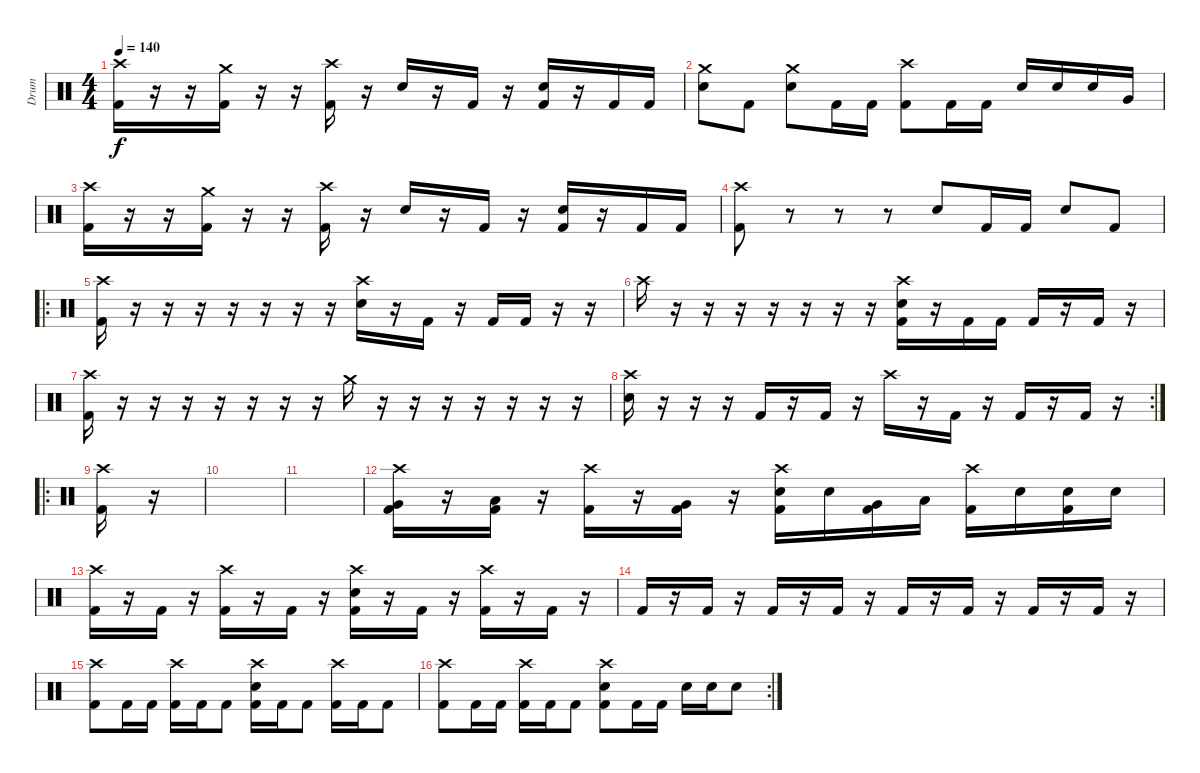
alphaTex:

\track ("Drum" "Drum") {instrument percussion}
\staff {score}
\articulation defaults
\ts (4 4)
\tempo 140
\clef neutral
\ks c
("Crash high (hit)" "Kick (hit) 2").16{dy f} r.16 r.16 ("Crash medium (hit)" "Kick (hit) 2").16 r.16 r.16 ("Crash high (hit)" "Kick (hit) 2").16 r.16 "Electric Snare (hit)".16 r.16 "Kick (hit) 2".16 r.16 ("Electric Snare (hit)" "Kick (hit) 2").16 r.16 "Kick (hit) 2".16 "Kick (hit) 2".16 |
("Crash medium (hit)" "Electric Snare (hit)").8 "Kick (hit) 2".8 ("Crash medium (hit)" "Electric Snare (hit)").8 "Kick (hit) 2".16 "Kick (hit) 2".16 ("Crash high (hit)" "Kick (hit) 2").8 "Kick (hit) 2".16 "Kick (hit) 2".16 "Electric Snare (hit)".16 "Electric Snare (hit)".16 "Electric Snare (hit)".16 "Very Low Tom (hit)".16 |
("Crash high (hit)" "Kick (hit) 2").16 r.16 r.16 ("Crash medium (hit)" "Kick (hit) 2").16 r.16 r.16 ("Crash high (hit)" "Kick (hit) 2").16 r.16 "Electric Snare (hit)".16 r.16 "Kick (hit) 2".16 r.16 ("Electric Snare (hit)" "Kick (hit) 2").16 r.16 "Kick (hit) 2".16 "Kick (hit) 2".16 |
("Crash high (hit)" "Kick (hit) 2").8 r.8 r.8 r.8 "Electric Snare (hit)".8 "Kick (hit) 2".16 "Kick (hit) 2".16 "Electric Snare (hit)".8 "Kick (hit) 2".8 |
\ro
("Crash high (hit)" "Kick (hit) 2").16 r.16 r.16 r.16 r.16 r.16 r.16 r.16 ("Crash high (hit)" "Electric Snare (hit)").16 r.16 "Kick (hit) 2".16 r.16 "Kick (hit) 2".16 "Kick (hit) 2".16 r.16 r.16 |
"Crash high (hit)".16 r.16 r.16 r.16 r.16 r.16 r.16 r.16 ("Crash high (hit)" "Electric Snare (hit)" "Kick (hit) 2").16 r.16 "Kick (hit) 2".16 "Kick (hit) 2".16 "Kick (hit) 2".16 r.16 "Kick (hit) 2".16 r.16 |
("Crash high (hit)" "Kick (hit) 2").16 r.16 r.16 r.16 r.16 r.16 r.16 r.16 "Crash medium (hit)".16 r.16 r.16 r.16 r.16 r.16 r.16 r.16 |
\rc 2
("Crash high (hit)" "Electric Snare (hit)").16 r.16 r.16 r.16 "Kick (hit) 2".16 r.16 "Kick (hit) 2".16 r.16 "Crash high (hit)".16 r.16 "Kick (hit) 2".16 r.16 "Kick (hit) 2".16 r.16 "Kick (hit) 2".16 r.16 |
\ro
("Crash high (hit)" "Kick (hit) 2").16 r.16 |
|
|
("Crash high (hit)" "Very Low Tom (hit)" "Kick (hit) 2").16 r.16 ("Low Floor Tom (hit)" "Kick (hit) 2").16 r.16 ("Crash high (hit)" "Kick (hit) 2").16 r.16 ("Very Low Tom (hit)" "Kick (hit) 2").16 r.16 ("Crash high (hit)" "Electric Snare (hit)" "Kick (hit) 2").16 "Electric Snare (hit)".16 ("Very Low Tom (hit)" "Kick (hit) 2").16 "Low Floor Tom (hit)".16 ("Crash high (hit)" "Kick (hit) 2").16 "Electric Snare (hit)".16 ("Electric Snare (hit)" "Kick (hit) 2").16 "Electric Snare (hit)".16 |
("Crash high (hit)" "Kick (hit) 2").16 r.16 "Kick (hit) 2".16 r.16 ("Crash high (hit)" "Kick (hit) 2").16 r.16 "Kick (hit) 2".16 r.16 ("Crash high (hit)" "Electric Snare (hit)" "Kick (hit) 2").16 r.16 "Kick (hit) 2".16 r.16 ("Crash high (hit)" "Kick (hit) 2").16 r.16 "Kick (hit) 2".16 r.16 |
"Kick (hit) 2".16 r.16 "Kick (hit) 2".16 r.16 "Kick (hit) 2".16 r.16 "Kick (hit) 2".16 r.16 "Kick (hit) 2".16 r.16 "Kick (hit) 2".16 r.16 "Kick (hit) 2".16 r.16 "Kick (hit) 2".16 r.16 |
("Crash high (hit)" "Kick (hit) 2").8 "Kick (hit) 2".16 "Kick (hit) 2".16 ("Crash high (hit)" "Kick (hit) 2").16 "Kick (hit) 2".16 "Kick (hit) 2".8 ("Crash high (hit)" "Electric Snare (hit)" "Kick (hit) 2").16 "Kick (hit) 2".16 "Kick (hit) 2".8 ("Crash high (hit)" "Kick (hit) 2").16 "Kick (hit) 2".16 "Kick (hit) 2".8 |
\rc 2
("Crash high (hit)" "Kick (hit) 2").8 "Kick (hit) 2".16 "Kick (hit) 2".16 ("Crash high (hit)" "Kick (hit) 2").16 "Kick (hit) 2".16 "Kick (hit) 2".8 ("Crash high (hit)" "Electric Snare (hit)" "Kick (hit) 2").8 "Kick (hit) 2".16 "Kick (hit) 2".16 "Electric Snare (hit)".16 "Electric Snare (hit)".16 "Electric Snare (hit)".8
